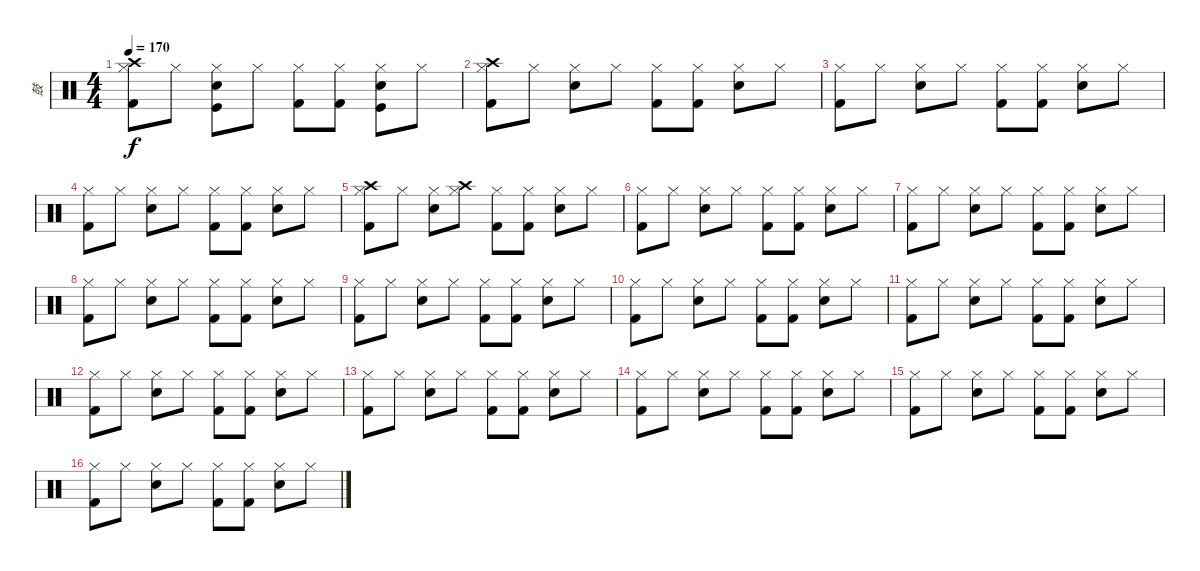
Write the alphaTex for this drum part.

\track ("鼓" "鼓") {instrument percussion}
\staff {score}
\articulation defaults
\ts (4 4)
\tempo 170
\clef neutral
\ks c
("Crash high (hit)" "Hi-Hat (closed)" "Kick (hit) 2").8{dy f} "Hi-Hat (closed)".8 ("Hi-Hat (closed)" "Electric Snare (hit)" "Kick (hit)").8 "Hi-Hat (closed)".8 ("Hi-Hat (closed)" "Kick (hit) 2").8 ("Hi-Hat (closed)" "Kick (hit) 2").8 ("Hi-Hat (closed)" "Electric Snare (hit)" "Kick (hit)").8 "Hi-Hat (closed)".8 |
("Crash high (hit)" "Hi-Hat (closed)" "Kick (hit) 2").8 "Hi-Hat (closed)".8 ("Hi-Hat (closed)" "Electric Snare (hit)").8 "Hi-Hat (closed)".8 ("Hi-Hat (closed)" "Kick (hit) 2").8 ("Hi-Hat (closed)" "Kick (hit) 2").8 ("Hi-Hat (closed)" "Electric Snare (hit)").8 "Hi-Hat (closed)".8 |
("Hi-Hat (closed)" "Kick (hit) 2").8 "Hi-Hat (closed)".8 ("Hi-Hat (closed)" "Electric Snare (hit)").8 "Hi-Hat (closed)".8 ("Hi-Hat (closed)" "Kick (hit) 2").8 ("Hi-Hat (closed)" "Kick (hit) 2").8 ("Hi-Hat (closed)" "Electric Snare (hit)").8 "Hi-Hat (closed)".8 |
("Hi-Hat (closed)" "Kick (hit) 2").8 "Hi-Hat (closed)".8 ("Hi-Hat (closed)" "Electric Snare (hit)").8 "Hi-Hat (closed)".8 ("Hi-Hat (closed)" "Kick (hit) 2").8 ("Hi-Hat (closed)" "Kick (hit) 2").8 ("Hi-Hat (closed)" "Electric Snare (hit)").8 "Hi-Hat (closed)".8 |
("Crash high (hit)" "Hi-Hat (closed)" "Kick (hit) 2").8 "Hi-Hat (closed)".8 ("Hi-Hat (closed)" "Electric Snare (hit)").8 ("Crash high (hit)" "Hi-Hat (closed)").8 ("Hi-Hat (closed)" "Kick (hit) 2").8 ("Hi-Hat (closed)" "Kick (hit) 2").8 ("Hi-Hat (closed)" "Electric Snare (hit)").8 "Hi-Hat (closed)".8 |
("Hi-Hat (closed)" "Kick (hit) 2").8 "Hi-Hat (closed)".8 ("Hi-Hat (closed)" "Electric Snare (hit)").8 "Hi-Hat (closed)".8 ("Hi-Hat (closed)" "Kick (hit) 2").8 ("Hi-Hat (closed)" "Kick (hit) 2").8 ("Hi-Hat (closed)" "Electric Snare (hit)").8 "Hi-Hat (closed)".8 |
("Hi-Hat (closed)" "Kick (hit) 2").8 "Hi-Hat (closed)".8 ("Hi-Hat (closed)" "Electric Snare (hit)").8 "Hi-Hat (closed)".8 ("Hi-Hat (closed)" "Kick (hit) 2").8 ("Hi-Hat (closed)" "Kick (hit) 2").8 ("Hi-Hat (closed)" "Electric Snare (hit)").8 "Hi-Hat (closed)".8 |
("Hi-Hat (closed)" "Kick (hit) 2").8 "Hi-Hat (closed)".8 ("Hi-Hat (closed)" "Electric Snare (hit)").8 "Hi-Hat (closed)".8 ("Hi-Hat (closed)" "Kick (hit) 2").8 ("Hi-Hat (closed)" "Kick (hit) 2").8 ("Hi-Hat (closed)" "Electric Snare (hit)").8 "Hi-Hat (closed)".8 |
("Hi-Hat (closed)" "Kick (hit) 2").8 "Hi-Hat (closed)".8 ("Hi-Hat (closed)" "Electric Snare (hit)").8 "Hi-Hat (closed)".8 ("Hi-Hat (closed)" "Kick (hit) 2").8 ("Hi-Hat (closed)" "Kick (hit) 2").8 ("Hi-Hat (closed)" "Electric Snare (hit)").8 "Hi-Hat (closed)".8 |
("Hi-Hat (closed)" "Kick (hit) 2").8 "Hi-Hat (closed)".8 ("Hi-Hat (closed)" "Electric Snare (hit)").8 "Hi-Hat (closed)".8 ("Hi-Hat (closed)" "Kick (hit) 2").8 ("Hi-Hat (closed)" "Kick (hit) 2").8 ("Hi-Hat (closed)" "Electric Snare (hit)").8 "Hi-Hat (closed)".8 |
("Hi-Hat (closed)" "Kick (hit) 2").8 "Hi-Hat (closed)".8 ("Hi-Hat (closed)" "Electric Snare (hit)").8 "Hi-Hat (closed)".8 ("Hi-Hat (closed)" "Kick (hit) 2").8 ("Hi-Hat (closed)" "Kick (hit) 2").8 ("Hi-Hat (closed)" "Electric Snare (hit)").8 "Hi-Hat (closed)".8 |
("Hi-Hat (closed)" "Kick (hit) 2").8 "Hi-Hat (closed)".8 ("Hi-Hat (closed)" "Electric Snare (hit)").8 "Hi-Hat (closed)".8 ("Hi-Hat (closed)" "Kick (hit) 2").8 ("Hi-Hat (closed)" "Kick (hit) 2").8 ("Hi-Hat (closed)" "Electric Snare (hit)").8 "Hi-Hat (closed)".8 |
("Hi-Hat (closed)" "Kick (hit) 2").8 "Hi-Hat (closed)".8 ("Hi-Hat (closed)" "Electric Snare (hit)").8 "Hi-Hat (closed)".8 ("Hi-Hat (closed)" "Kick (hit) 2").8 ("Hi-Hat (closed)" "Kick (hit) 2").8 ("Hi-Hat (closed)" "Electric Snare (hit)").8 "Hi-Hat (closed)".8 |
("Hi-Hat (closed)" "Kick (hit) 2").8 "Hi-Hat (closed)".8 ("Hi-Hat (closed)" "Electric Snare (hit)").8 "Hi-Hat (closed)".8 ("Hi-Hat (closed)" "Kick (hit) 2").8 ("Hi-Hat (closed)" "Kick (hit) 2").8 ("Hi-Hat (closed)" "Electric Snare (hit)").8 "Hi-Hat (closed)".8 |
("Hi-Hat (closed)" "Kick (hit) 2").8 "Hi-Hat (closed)".8 ("Hi-Hat (closed)" "Electric Snare (hit)").8 "Hi-Hat (closed)".8 ("Hi-Hat (closed)" "Kick (hit) 2").8 ("Hi-Hat (closed)" "Kick (hit) 2").8 ("Hi-Hat (closed)" "Electric Snare (hit)").8 "Hi-Hat (closed)".8 |
("Hi-Hat (closed)" "Kick (hit) 2").8 "Hi-Hat (closed)".8 ("Hi-Hat (closed)" "Electric Snare (hit)").8 "Hi-Hat (closed)".8 ("Hi-Hat (closed)" "Kick (hit) 2").8 ("Hi-Hat (closed)" "Kick (hit) 2").8 ("Hi-Hat (closed)" "Electric Snare (hit)").8 "Hi-Hat (closed)".8
